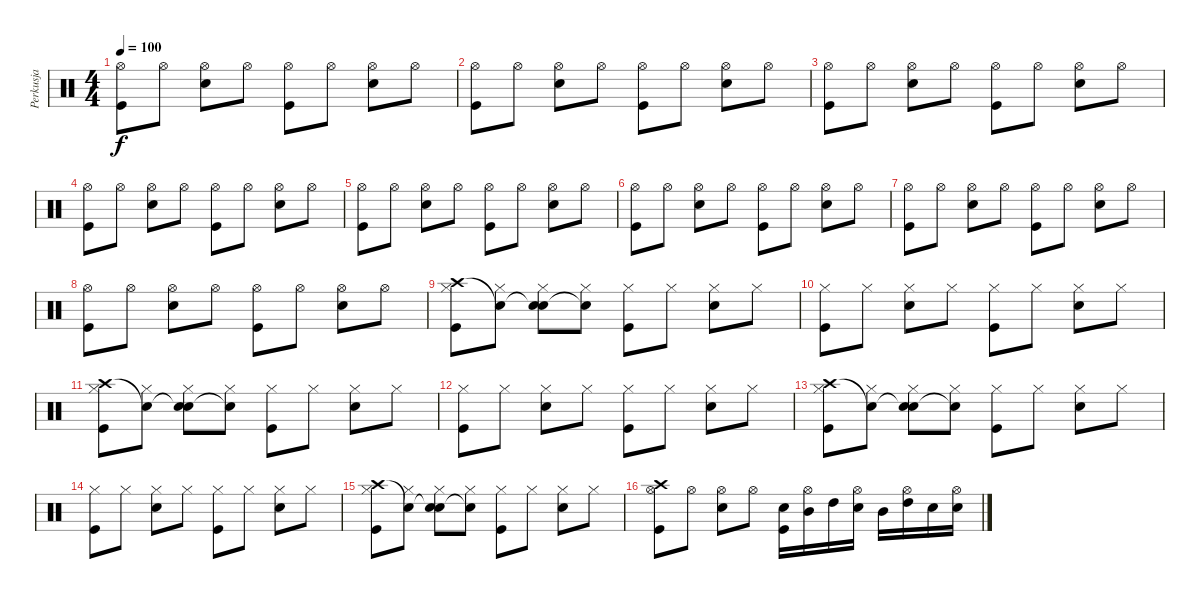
\track ("Perkusja" "Perkusja") {instrument percussion}
\staff {score}
\articulation defaults
\ts (4 4)
\tempo 100
\clef neutral
\ks c
("Hi-Hat (open)" "Kick (hit)").8{dy f} "Hi-Hat (open)".8 ("Hi-Hat (open)" "Metronome (bell)").8 "Hi-Hat (open)".8 ("Hi-Hat (open)" "Kick (hit)").8 "Hi-Hat (open)".8 ("Hi-Hat (open)" "Metronome (bell)").8 "Hi-Hat (open)".8 |
("Hi-Hat (open)" "Kick (hit)").8 "Hi-Hat (open)".8 ("Hi-Hat (open)" "Metronome (bell)").8 "Hi-Hat (open)".8 ("Hi-Hat (open)" "Kick (hit)").8 "Hi-Hat (open)".8 ("Hi-Hat (open)" "Metronome (bell)").8 "Hi-Hat (open)".8 |
("Hi-Hat (open)" "Kick (hit)").8 "Hi-Hat (open)".8 ("Hi-Hat (open)" "Metronome (bell)").8 "Hi-Hat (open)".8 ("Hi-Hat (open)" "Kick (hit)").8 "Hi-Hat (open)".8 ("Hi-Hat (open)" "Metronome (bell)").8 "Hi-Hat (open)".8 |
("Hi-Hat (open)" "Kick (hit)").8 "Hi-Hat (open)".8 ("Hi-Hat (open)" "Metronome (bell)").8 "Hi-Hat (open)".8 ("Hi-Hat (open)" "Kick (hit)").8 "Hi-Hat (open)".8 ("Hi-Hat (open)" "Metronome (bell)").8 "Hi-Hat (open)".8 |
("Hi-Hat (open)" "Kick (hit)").8 "Hi-Hat (open)".8 ("Hi-Hat (open)" "Metronome (bell)").8 "Hi-Hat (open)".8 ("Hi-Hat (open)" "Kick (hit)").8 "Hi-Hat (open)".8 ("Hi-Hat (open)" "Metronome (bell)").8 "Hi-Hat (open)".8 |
("Hi-Hat (open)" "Kick (hit)").8 "Hi-Hat (open)".8 ("Hi-Hat (open)" "Metronome (bell)").8 "Hi-Hat (open)".8 ("Hi-Hat (open)" "Kick (hit)").8 "Hi-Hat (open)".8 ("Hi-Hat (open)" "Metronome (bell)").8 "Hi-Hat (open)".8 |
("Hi-Hat (open)" "Kick (hit)").8 "Hi-Hat (open)".8 ("Hi-Hat (open)" "Metronome (bell)").8 "Hi-Hat (open)".8 ("Hi-Hat (open)" "Kick (hit)").8 "Hi-Hat (open)".8 ("Hi-Hat (open)" "Metronome (bell)").8 "Hi-Hat (open)".8 |
("Hi-Hat (open)" "Kick (hit)").8 "Hi-Hat (open)".8 ("Hi-Hat (open)" "Metronome (bell)").8 "Hi-Hat (open)".8 ("Hi-Hat (open)" "Kick (hit)").8 "Hi-Hat (open)".8 ("Hi-Hat (open)" "Metronome (bell)").8 "Hi-Hat (open)".8 |
("Hi-Hat (closed)" "Crash high (hit)" "Kick (hit)").8 ("Hi-Hat (closed)" "Snare (hit)"{t}).8 ("Hi-Hat (closed)" "Snare (hit)"{t} "Metronome (bell)").8 ("Hi-Hat (closed)" "Snare (hit)"{t}).8 ("Hi-Hat (closed)" "Kick (hit)").8 "Hi-Hat (closed)".8 ("Hi-Hat (closed)" "Metronome (bell)").8 "Hi-Hat (closed)".8 |
("Hi-Hat (closed)" "Kick (hit)").8 "Hi-Hat (closed)".8 ("Hi-Hat (closed)" "Metronome (bell)").8 "Hi-Hat (closed)".8 ("Hi-Hat (closed)" "Kick (hit)").8 "Hi-Hat (closed)".8 ("Hi-Hat (closed)" "Metronome (bell)").8 "Hi-Hat (closed)".8 |
("Hi-Hat (closed)" "Crash high (hit)" "Kick (hit)").8 ("Hi-Hat (closed)" "Snare (hit)"{t}).8 ("Hi-Hat (closed)" "Snare (hit)"{t} "Metronome (bell)").8 ("Hi-Hat (closed)" "Snare (hit)"{t}).8 ("Hi-Hat (closed)" "Kick (hit)").8 "Hi-Hat (closed)".8 ("Hi-Hat (closed)" "Metronome (bell)").8 "Hi-Hat (closed)".8 |
("Hi-Hat (closed)" "Kick (hit)").8 "Hi-Hat (closed)".8 ("Hi-Hat (closed)" "Metronome (bell)").8 "Hi-Hat (closed)".8 ("Hi-Hat (closed)" "Kick (hit)").8 "Hi-Hat (closed)".8 ("Hi-Hat (closed)" "Metronome (bell)").8 "Hi-Hat (closed)".8 |
("Hi-Hat (closed)" "Crash high (hit)" "Kick (hit)").8 ("Hi-Hat (closed)" "Snare (hit)"{t}).8 ("Hi-Hat (closed)" "Snare (hit)"{t} "Metronome (bell)").8 ("Hi-Hat (closed)" "Snare (hit)"{t}).8 ("Hi-Hat (closed)" "Kick (hit)").8 "Hi-Hat (closed)".8 ("Hi-Hat (closed)" "Metronome (bell)").8 "Hi-Hat (closed)".8 |
("Hi-Hat (closed)" "Kick (hit)").8 "Hi-Hat (closed)".8 ("Hi-Hat (closed)" "Metronome (bell)").8 "Hi-Hat (closed)".8 ("Hi-Hat (closed)" "Kick (hit)").8 "Hi-Hat (closed)".8 ("Hi-Hat (closed)" "Metronome (bell)").8 "Hi-Hat (closed)".8 |
("Hi-Hat (closed)" "Crash high (hit)" "Kick (hit)").8 ("Hi-Hat (closed)" "Snare (hit)"{t}).8 ("Hi-Hat (closed)" "Snare (hit)"{t} "Metronome (bell)").8 ("Hi-Hat (closed)" "Snare (hit)"{t}).8 ("Hi-Hat (closed)" "Kick (hit)").8 "Hi-Hat (closed)".8 ("Hi-Hat (closed)" "Metronome (bell)").8 "Hi-Hat (closed)".8 |
("Hi-Hat (open)" "Crash high (hit)" "Kick (hit)").8 "Hi-Hat (open)".8 ("Hi-Hat (open)" "Metronome (bell)").8 "Hi-Hat (open)".8 ("Metronome (bell)" "Kick (hit)").16 ("Hi-Hat (open)" "Mid Tom (hit)").16 "High Tom (hit)".16 ("Hi-Hat (open)" "Metronome (bell)").16 "Mid Tom (hit)".16 ("Hi-Hat (open)" "High Tom (hit)").16 "Metronome (bell)".16 ("Hi-Hat (open)" "Metronome (bell)").16
